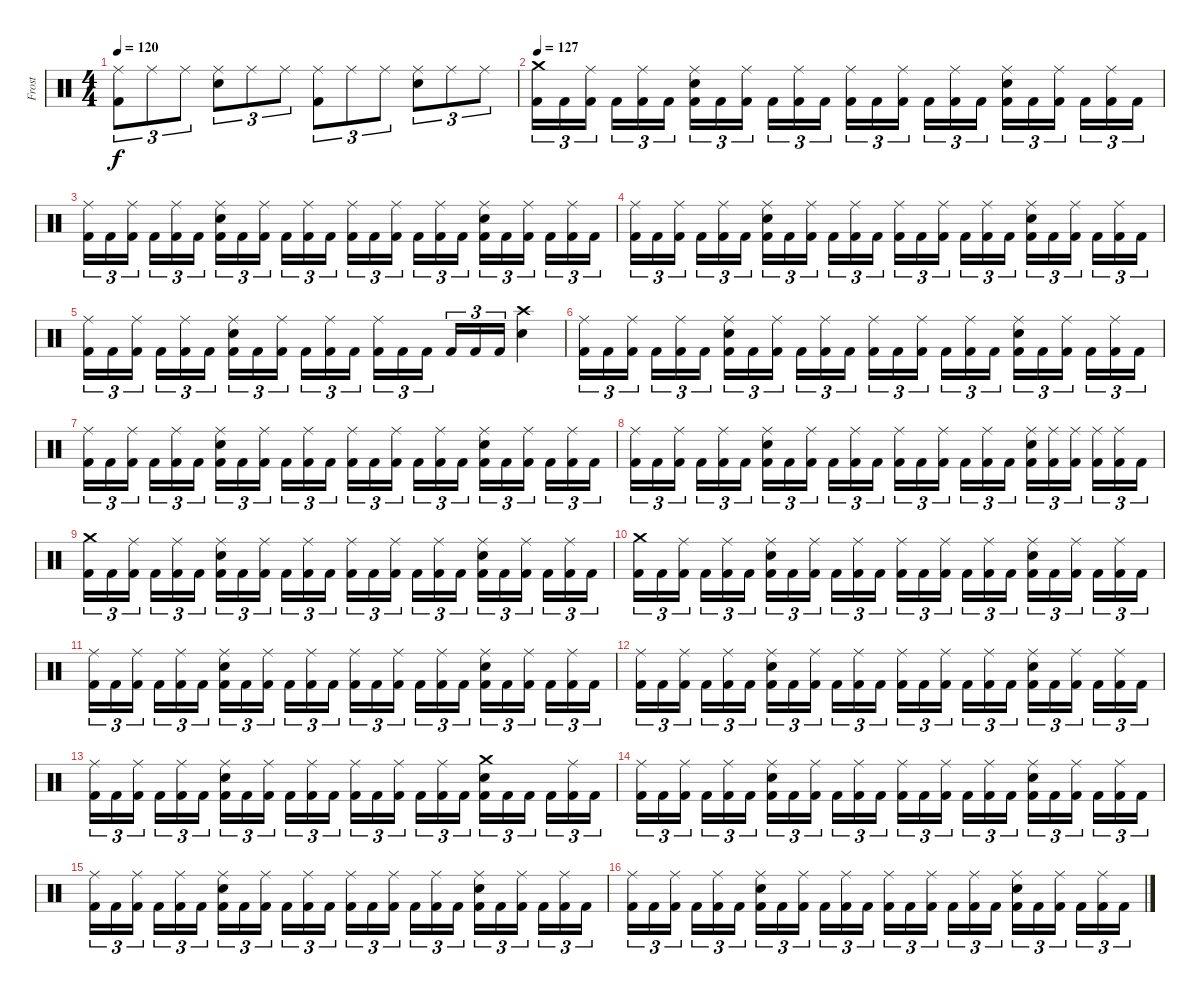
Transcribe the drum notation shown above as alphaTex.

\track ("Frost" "Frost") {instrument percussion}
\staff {score}
\articulation defaults
\ts (4 4)
\tempo 120
\clef neutral
\ks c
("Ride (middle)" "Kick (hit) 2").8{tu (3 2) dy f} "Ride (middle)".8{tu (3 2)} "Ride (middle)".8{tu (3 2)} ("Ride (middle)" "Electric Snare (hit)").8{tu (3 2)} "Ride (middle)".8{tu (3 2)} "Ride (middle)".8{tu (3 2)} ("Ride (middle)" "Kick (hit) 2").8{tu (3 2)} "Ride (middle)".8{tu (3 2)} "Ride (middle)".8{tu (3 2)} ("Ride (middle)" "Electric Snare (hit)").8{tu (3 2)} "Ride (middle)".8{tu (3 2)} "Ride (middle)".8{tu (3 2)} |
\tempo 127
("Crash medium (hit)" "Kick (hit) 2").16{tu (3 2)} "Kick (hit) 2".16{tu (3 2)} ("Ride (middle)" "Kick (hit) 2").16{tu (3 2)} "Kick (hit) 2".16{tu (3 2)} ("Ride (middle)" "Kick (hit) 2").16{tu (3 2)} "Kick (hit) 2".16{tu (3 2)} ("Ride (middle)" "Electric Snare (hit)" "Kick (hit) 2").16{tu (3 2)} "Kick (hit) 2".16{tu (3 2)} ("Ride (middle)" "Kick (hit) 2").16{tu (3 2)} "Kick (hit) 2".16{tu (3 2)} ("Ride (middle)" "Kick (hit) 2").16{tu (3 2)} "Kick (hit) 2".16{tu (3 2)} ("Ride (middle)" "Kick (hit) 2").16{tu (3 2)} "Kick (hit) 2".16{tu (3 2)} ("Ride (middle)" "Kick (hit) 2").16{tu (3 2)} "Kick (hit) 2".16{tu (3 2)} ("Ride (middle)" "Kick (hit) 2").16{tu (3 2)} "Kick (hit) 2".16{tu (3 2)} ("Ride (middle)" "Electric Snare (hit)" "Kick (hit) 2").16{tu (3 2)} "Kick (hit) 2".16{tu (3 2)} ("Ride (middle)" "Kick (hit) 2").16{tu (3 2)} "Kick (hit) 2".16{tu (3 2)} ("Ride (middle)" "Kick (hit) 2").16{tu (3 2)} "Kick (hit) 2".16{tu (3 2)} |
("Ride (middle)" "Kick (hit) 2").16{tu (3 2)} "Kick (hit) 2".16{tu (3 2)} ("Ride (middle)" "Kick (hit) 2").16{tu (3 2)} "Kick (hit) 2".16{tu (3 2)} ("Ride (middle)" "Kick (hit) 2").16{tu (3 2)} "Kick (hit) 2".16{tu (3 2)} ("Ride (middle)" "Electric Snare (hit)" "Kick (hit) 2").16{tu (3 2)} "Kick (hit) 2".16{tu (3 2)} ("Ride (middle)" "Kick (hit) 2").16{tu (3 2)} "Kick (hit) 2".16{tu (3 2)} ("Ride (middle)" "Kick (hit) 2").16{tu (3 2)} "Kick (hit) 2".16{tu (3 2)} ("Ride (middle)" "Kick (hit) 2").16{tu (3 2)} "Kick (hit) 2".16{tu (3 2)} ("Ride (middle)" "Kick (hit) 2").16{tu (3 2)} "Kick (hit) 2".16{tu (3 2)} ("Ride (middle)" "Kick (hit) 2").16{tu (3 2)} "Kick (hit) 2".16{tu (3 2)} ("Ride (middle)" "Electric Snare (hit)" "Kick (hit) 2").16{tu (3 2)} "Kick (hit) 2".16{tu (3 2)} ("Ride (middle)" "Kick (hit) 2").16{tu (3 2)} "Kick (hit) 2".16{tu (3 2)} ("Ride (middle)" "Kick (hit) 2").16{tu (3 2)} "Kick (hit) 2".16{tu (3 2)} |
("Ride (middle)" "Kick (hit) 2").16{tu (3 2)} "Kick (hit) 2".16{tu (3 2)} ("Ride (middle)" "Kick (hit) 2").16{tu (3 2)} "Kick (hit) 2".16{tu (3 2)} ("Ride (middle)" "Kick (hit) 2").16{tu (3 2)} "Kick (hit) 2".16{tu (3 2)} ("Ride (middle)" "Electric Snare (hit)" "Kick (hit) 2").16{tu (3 2)} "Kick (hit) 2".16{tu (3 2)} ("Ride (middle)" "Kick (hit) 2").16{tu (3 2)} "Kick (hit) 2".16{tu (3 2)} ("Ride (middle)" "Kick (hit) 2").16{tu (3 2)} "Kick (hit) 2".16{tu (3 2)} ("Ride (middle)" "Kick (hit) 2").16{tu (3 2)} "Kick (hit) 2".16{tu (3 2)} ("Ride (middle)" "Kick (hit) 2").16{tu (3 2)} "Kick (hit) 2".16{tu (3 2)} ("Ride (middle)" "Kick (hit) 2").16{tu (3 2)} "Kick (hit) 2".16{tu (3 2)} ("Ride (middle)" "Electric Snare (hit)" "Kick (hit) 2").16{tu (3 2)} "Kick (hit) 2".16{tu (3 2)} ("Ride (middle)" "Kick (hit) 2").16{tu (3 2)} "Kick (hit) 2".16{tu (3 2)} ("Ride (middle)" "Kick (hit) 2").16{tu (3 2)} "Kick (hit) 2".16{tu (3 2)} |
("Ride (middle)" "Kick (hit) 2").16{tu (3 2)} "Kick (hit) 2".16{tu (3 2)} ("Ride (middle)" "Kick (hit) 2").16{tu (3 2)} "Kick (hit) 2".16{tu (3 2)} ("Ride (middle)" "Kick (hit) 2").16{tu (3 2)} "Kick (hit) 2".16{tu (3 2)} ("Ride (middle)" "Electric Snare (hit)" "Kick (hit) 2").16{tu (3 2)} "Kick (hit) 2".16{tu (3 2)} ("Ride (middle)" "Kick (hit) 2").16{tu (3 2)} "Kick (hit) 2".16{tu (3 2)} ("Ride (middle)" "Kick (hit) 2").16{tu (3 2)} "Kick (hit) 2".16{tu (3 2)} ("Ride (middle)" "Kick (hit) 2").16{tu (3 2)} "Kick (hit) 2".16{tu (3 2)} "Kick (hit) 2".16{tu (3 2)} "Kick (hit) 2".16{tu (3 2)} "Kick (hit) 2".16{tu (3 2)} "Kick (hit) 2".16{tu (3 2)} ("Crash high (hit)" "Electric Snare (hit)").4 |
("Ride (middle)" "Kick (hit) 2").16{tu (3 2)} "Kick (hit) 2".16{tu (3 2)} ("Ride (middle)" "Kick (hit) 2").16{tu (3 2)} "Kick (hit) 2".16{tu (3 2)} ("Ride (middle)" "Kick (hit) 2").16{tu (3 2)} "Kick (hit) 2".16{tu (3 2)} ("Ride (middle)" "Electric Snare (hit)" "Kick (hit) 2").16{tu (3 2)} "Kick (hit) 2".16{tu (3 2)} ("Ride (middle)" "Kick (hit) 2").16{tu (3 2)} "Kick (hit) 2".16{tu (3 2)} ("Ride (middle)" "Kick (hit) 2").16{tu (3 2)} "Kick (hit) 2".16{tu (3 2)} ("Ride (middle)" "Kick (hit) 2").16{tu (3 2)} "Kick (hit) 2".16{tu (3 2)} ("Ride (middle)" "Kick (hit) 2").16{tu (3 2)} "Kick (hit) 2".16{tu (3 2)} ("Ride (middle)" "Kick (hit) 2").16{tu (3 2)} "Kick (hit) 2".16{tu (3 2)} ("Ride (middle)" "Electric Snare (hit)" "Kick (hit) 2").16{tu (3 2)} "Kick (hit) 2".16{tu (3 2)} ("Ride (middle)" "Kick (hit) 2").16{tu (3 2)} "Kick (hit) 2".16{tu (3 2)} ("Ride (middle)" "Kick (hit) 2").16{tu (3 2)} "Kick (hit) 2".16{tu (3 2)} |
("Ride (middle)" "Kick (hit) 2").16{tu (3 2)} "Kick (hit) 2".16{tu (3 2)} ("Ride (middle)" "Kick (hit) 2").16{tu (3 2)} "Kick (hit) 2".16{tu (3 2)} ("Ride (middle)" "Kick (hit) 2").16{tu (3 2)} "Kick (hit) 2".16{tu (3 2)} ("Ride (middle)" "Electric Snare (hit)" "Kick (hit) 2").16{tu (3 2)} "Kick (hit) 2".16{tu (3 2)} ("Ride (middle)" "Kick (hit) 2").16{tu (3 2)} "Kick (hit) 2".16{tu (3 2)} ("Ride (middle)" "Kick (hit) 2").16{tu (3 2)} "Kick (hit) 2".16{tu (3 2)} ("Ride (middle)" "Kick (hit) 2").16{tu (3 2)} "Kick (hit) 2".16{tu (3 2)} ("Ride (middle)" "Kick (hit) 2").16{tu (3 2)} "Kick (hit) 2".16{tu (3 2)} ("Ride (middle)" "Kick (hit) 2").16{tu (3 2)} "Kick (hit) 2".16{tu (3 2)} ("Ride (middle)" "Electric Snare (hit)" "Kick (hit) 2").16{tu (3 2)} "Kick (hit) 2".16{tu (3 2)} ("Ride (middle)" "Kick (hit) 2").16{tu (3 2)} "Kick (hit) 2".16{tu (3 2)} ("Ride (middle)" "Kick (hit) 2").16{tu (3 2)} "Kick (hit) 2".16{tu (3 2)} |
("Ride (middle)" "Kick (hit) 2").16{tu (3 2)} "Kick (hit) 2".16{tu (3 2)} ("Ride (middle)" "Kick (hit) 2").16{tu (3 2)} "Kick (hit) 2".16{tu (3 2)} ("Ride (middle)" "Kick (hit) 2").16{tu (3 2)} "Kick (hit) 2".16{tu (3 2)} ("Ride (middle)" "Electric Snare (hit)" "Kick (hit) 2").16{tu (3 2)} "Kick (hit) 2".16{tu (3 2)} ("Ride (middle)" "Kick (hit) 2").16{tu (3 2)} "Kick (hit) 2".16{tu (3 2)} ("Ride (middle)" "Kick (hit) 2").16{tu (3 2)} "Kick (hit) 2".16{tu (3 2)} ("Ride (middle)" "Kick (hit) 2").16{tu (3 2)} "Kick (hit) 2".16{tu (3 2)} ("Ride (middle)" "Kick (hit) 2").16{tu (3 2)} "Kick (hit) 2".16{tu (3 2)} ("Ride (middle)" "Kick (hit) 2").16{tu (3 2)} "Kick (hit) 2".16{tu (3 2)} ("Ride (middle)" "Electric Snare (hit)" "Kick (hit) 2").16{tu (3 2)} ("Ride (middle)" "Kick (hit) 2").16{tu (3 2)} ("Ride (middle)" "Kick (hit) 2").16{tu (3 2)} ("Ride (middle)" "Kick (hit) 2").16{tu (3 2)} ("Ride (middle)" "Kick (hit) 2").16{tu (3 2)} "Kick (hit) 2".16{tu (3 2)} |
("Crash medium (hit)" "Kick (hit) 2").16{tu (3 2)} "Kick (hit) 2".16{tu (3 2)} ("Ride (middle)" "Kick (hit) 2").16{tu (3 2)} "Kick (hit) 2".16{tu (3 2)} ("Ride (middle)" "Kick (hit) 2").16{tu (3 2)} "Kick (hit) 2".16{tu (3 2)} ("Ride (middle)" "Electric Snare (hit)" "Kick (hit) 2").16{tu (3 2)} "Kick (hit) 2".16{tu (3 2)} ("Ride (middle)" "Kick (hit) 2").16{tu (3 2)} "Kick (hit) 2".16{tu (3 2)} ("Ride (middle)" "Kick (hit) 2").16{tu (3 2)} "Kick (hit) 2".16{tu (3 2)} ("Ride (middle)" "Kick (hit) 2").16{tu (3 2)} "Kick (hit) 2".16{tu (3 2)} ("Ride (middle)" "Kick (hit) 2").16{tu (3 2)} "Kick (hit) 2".16{tu (3 2)} ("Ride (middle)" "Kick (hit) 2").16{tu (3 2)} "Kick (hit) 2".16{tu (3 2)} ("Ride (middle)" "Electric Snare (hit)" "Kick (hit) 2").16{tu (3 2)} "Kick (hit) 2".16{tu (3 2)} ("Ride (middle)" "Kick (hit) 2").16{tu (3 2)} "Kick (hit) 2".16{tu (3 2)} ("Ride (middle)" "Kick (hit) 2").16{tu (3 2)} "Kick (hit) 2".16{tu (3 2)} |
("Crash medium (hit)" "Kick (hit) 2").16{tu (3 2)} "Kick (hit) 2".16{tu (3 2)} ("Ride (middle)" "Kick (hit) 2").16{tu (3 2)} "Kick (hit) 2".16{tu (3 2)} ("Ride (middle)" "Kick (hit) 2").16{tu (3 2)} "Kick (hit) 2".16{tu (3 2)} ("Ride (middle)" "Electric Snare (hit)" "Kick (hit) 2").16{tu (3 2)} "Kick (hit) 2".16{tu (3 2)} ("Ride (middle)" "Kick (hit) 2").16{tu (3 2)} "Kick (hit) 2".16{tu (3 2)} ("Ride (middle)" "Kick (hit) 2").16{tu (3 2)} "Kick (hit) 2".16{tu (3 2)} ("Ride (middle)" "Kick (hit) 2").16{tu (3 2)} "Kick (hit) 2".16{tu (3 2)} ("Ride (middle)" "Kick (hit) 2").16{tu (3 2)} "Kick (hit) 2".16{tu (3 2)} ("Ride (middle)" "Kick (hit) 2").16{tu (3 2)} "Kick (hit) 2".16{tu (3 2)} ("Ride (middle)" "Electric Snare (hit)" "Kick (hit) 2").16{tu (3 2)} "Kick (hit) 2".16{tu (3 2)} ("Ride (middle)" "Kick (hit) 2").16{tu (3 2)} "Kick (hit) 2".16{tu (3 2)} ("Ride (middle)" "Kick (hit) 2").16{tu (3 2)} "Kick (hit) 2".16{tu (3 2)} |
("Ride (middle)" "Kick (hit) 2").16{tu (3 2)} "Kick (hit) 2".16{tu (3 2)} ("Ride (middle)" "Kick (hit) 2").16{tu (3 2)} "Kick (hit) 2".16{tu (3 2)} ("Ride (middle)" "Kick (hit) 2").16{tu (3 2)} "Kick (hit) 2".16{tu (3 2)} ("Ride (middle)" "Electric Snare (hit)" "Kick (hit) 2").16{tu (3 2)} "Kick (hit) 2".16{tu (3 2)} ("Ride (middle)" "Kick (hit) 2").16{tu (3 2)} "Kick (hit) 2".16{tu (3 2)} ("Ride (middle)" "Kick (hit) 2").16{tu (3 2)} "Kick (hit) 2".16{tu (3 2)} ("Ride (middle)" "Kick (hit) 2").16{tu (3 2)} "Kick (hit) 2".16{tu (3 2)} ("Ride (middle)" "Kick (hit) 2").16{tu (3 2)} "Kick (hit) 2".16{tu (3 2)} ("Ride (middle)" "Kick (hit) 2").16{tu (3 2)} "Kick (hit) 2".16{tu (3 2)} ("Ride (middle)" "Electric Snare (hit)" "Kick (hit) 2").16{tu (3 2)} "Kick (hit) 2".16{tu (3 2)} ("Ride (middle)" "Kick (hit) 2").16{tu (3 2)} "Kick (hit) 2".16{tu (3 2)} ("Ride (middle)" "Kick (hit) 2").16{tu (3 2)} "Kick (hit) 2".16{tu (3 2)} |
("Ride (middle)" "Kick (hit) 2").16{tu (3 2)} "Kick (hit) 2".16{tu (3 2)} ("Ride (middle)" "Kick (hit) 2").16{tu (3 2)} "Kick (hit) 2".16{tu (3 2)} ("Ride (middle)" "Kick (hit) 2").16{tu (3 2)} "Kick (hit) 2".16{tu (3 2)} ("Ride (middle)" "Electric Snare (hit)" "Kick (hit) 2").16{tu (3 2)} "Kick (hit) 2".16{tu (3 2)} ("Ride (middle)" "Kick (hit) 2").16{tu (3 2)} "Kick (hit) 2".16{tu (3 2)} ("Ride (middle)" "Kick (hit) 2").16{tu (3 2)} "Kick (hit) 2".16{tu (3 2)} ("Ride (middle)" "Kick (hit) 2").16{tu (3 2)} "Kick (hit) 2".16{tu (3 2)} ("Ride (middle)" "Kick (hit) 2").16{tu (3 2)} "Kick (hit) 2".16{tu (3 2)} ("Ride (middle)" "Kick (hit) 2").16{tu (3 2)} "Kick (hit) 2".16{tu (3 2)} ("Ride (middle)" "Electric Snare (hit)" "Kick (hit) 2").16{tu (3 2)} "Kick (hit) 2".16{tu (3 2)} ("Ride (middle)" "Kick (hit) 2").16{tu (3 2)} "Kick (hit) 2".16{tu (3 2)} ("Ride (middle)" "Kick (hit) 2").16{tu (3 2)} "Kick (hit) 2".16{tu (3 2)} |
("Ride (middle)" "Kick (hit) 2").16{tu (3 2)} "Kick (hit) 2".16{tu (3 2)} ("Ride (middle)" "Kick (hit) 2").16{tu (3 2)} "Kick (hit) 2".16{tu (3 2)} ("Ride (middle)" "Kick (hit) 2").16{tu (3 2)} "Kick (hit) 2".16{tu (3 2)} ("Ride (middle)" "Electric Snare (hit)" "Kick (hit) 2").16{tu (3 2)} "Kick (hit) 2".16{tu (3 2)} ("Ride (middle)" "Kick (hit) 2").16{tu (3 2)} "Kick (hit) 2".16{tu (3 2)} ("Ride (middle)" "Kick (hit) 2").16{tu (3 2)} "Kick (hit) 2".16{tu (3 2)} ("Ride (middle)" "Kick (hit) 2").16{tu (3 2)} "Kick (hit) 2".16{tu (3 2)} ("Ride (middle)" "Kick (hit) 2").16{tu (3 2)} "Kick (hit) 2".16{tu (3 2)} ("Ride (middle)" "Kick (hit) 2").16{tu (3 2)} "Kick (hit) 2".16{tu (3 2)} ("Crash medium (hit)" "Electric Snare (hit)" "Kick (hit) 2").16{tu (3 2)} "Kick (hit) 2".16{tu (3 2)} "Kick (hit) 2".16{tu (3 2)} "Kick (hit) 2".16{tu (3 2)} ("Ride (middle)" "Kick (hit) 2").16{tu (3 2)} "Kick (hit) 2".16{tu (3 2)} |
("Ride (middle)" "Kick (hit) 2").16{tu (3 2)} "Kick (hit) 2".16{tu (3 2)} ("Ride (middle)" "Kick (hit) 2").16{tu (3 2)} "Kick (hit) 2".16{tu (3 2)} ("Ride (middle)" "Kick (hit) 2").16{tu (3 2)} "Kick (hit) 2".16{tu (3 2)} ("Ride (middle)" "Electric Snare (hit)" "Kick (hit) 2").16{tu (3 2)} "Kick (hit) 2".16{tu (3 2)} ("Ride (middle)" "Kick (hit) 2").16{tu (3 2)} "Kick (hit) 2".16{tu (3 2)} ("Ride (middle)" "Kick (hit) 2").16{tu (3 2)} "Kick (hit) 2".16{tu (3 2)} ("Ride (middle)" "Kick (hit) 2").16{tu (3 2)} "Kick (hit) 2".16{tu (3 2)} ("Ride (middle)" "Kick (hit) 2").16{tu (3 2)} "Kick (hit) 2".16{tu (3 2)} ("Ride (middle)" "Kick (hit) 2").16{tu (3 2)} "Kick (hit) 2".16{tu (3 2)} ("Ride (middle)" "Electric Snare (hit)" "Kick (hit) 2").16{tu (3 2)} "Kick (hit) 2".16{tu (3 2)} ("Ride (middle)" "Kick (hit) 2").16{tu (3 2)} "Kick (hit) 2".16{tu (3 2)} ("Ride (middle)" "Kick (hit) 2").16{tu (3 2)} "Kick (hit) 2".16{tu (3 2)} |
("Ride (middle)" "Kick (hit) 2").16{tu (3 2)} "Kick (hit) 2".16{tu (3 2)} ("Ride (middle)" "Kick (hit) 2").16{tu (3 2)} "Kick (hit) 2".16{tu (3 2)} ("Ride (middle)" "Kick (hit) 2").16{tu (3 2)} "Kick (hit) 2".16{tu (3 2)} ("Ride (middle)" "Electric Snare (hit)" "Kick (hit) 2").16{tu (3 2)} "Kick (hit) 2".16{tu (3 2)} ("Ride (middle)" "Kick (hit) 2").16{tu (3 2)} "Kick (hit) 2".16{tu (3 2)} ("Ride (middle)" "Kick (hit) 2").16{tu (3 2)} "Kick (hit) 2".16{tu (3 2)} ("Ride (middle)" "Kick (hit) 2").16{tu (3 2)} "Kick (hit) 2".16{tu (3 2)} ("Ride (middle)" "Kick (hit) 2").16{tu (3 2)} "Kick (hit) 2".16{tu (3 2)} ("Ride (middle)" "Kick (hit) 2").16{tu (3 2)} "Kick (hit) 2".16{tu (3 2)} ("Ride (middle)" "Electric Snare (hit)" "Kick (hit) 2").16{tu (3 2)} "Kick (hit) 2".16{tu (3 2)} ("Ride (middle)" "Kick (hit) 2").16{tu (3 2)} "Kick (hit) 2".16{tu (3 2)} ("Ride (middle)" "Kick (hit) 2").16{tu (3 2)} "Kick (hit) 2".16{tu (3 2)} |
("Ride (middle)" "Kick (hit) 2").16{tu (3 2)} "Kick (hit) 2".16{tu (3 2)} ("Ride (middle)" "Kick (hit) 2").16{tu (3 2)} "Kick (hit) 2".16{tu (3 2)} ("Ride (middle)" "Kick (hit) 2").16{tu (3 2)} "Kick (hit) 2".16{tu (3 2)} ("Ride (middle)" "Electric Snare (hit)" "Kick (hit) 2").16{tu (3 2)} "Kick (hit) 2".16{tu (3 2)} ("Ride (middle)" "Kick (hit) 2").16{tu (3 2)} "Kick (hit) 2".16{tu (3 2)} ("Ride (middle)" "Kick (hit) 2").16{tu (3 2)} "Kick (hit) 2".16{tu (3 2)} ("Ride (middle)" "Kick (hit) 2").16{tu (3 2)} "Kick (hit) 2".16{tu (3 2)} ("Ride (middle)" "Kick (hit) 2").16{tu (3 2)} "Kick (hit) 2".16{tu (3 2)} ("Ride (middle)" "Kick (hit) 2").16{tu (3 2)} "Kick (hit) 2".16{tu (3 2)} ("Ride (middle)" "Electric Snare (hit)" "Kick (hit) 2").16{tu (3 2)} "Kick (hit) 2".16{tu (3 2)} ("Ride (middle)" "Kick (hit) 2").16{tu (3 2)} "Kick (hit) 2".16{tu (3 2)} ("Ride (middle)" "Kick (hit) 2").16{tu (3 2)} "Kick (hit) 2".16{tu (3 2)}
